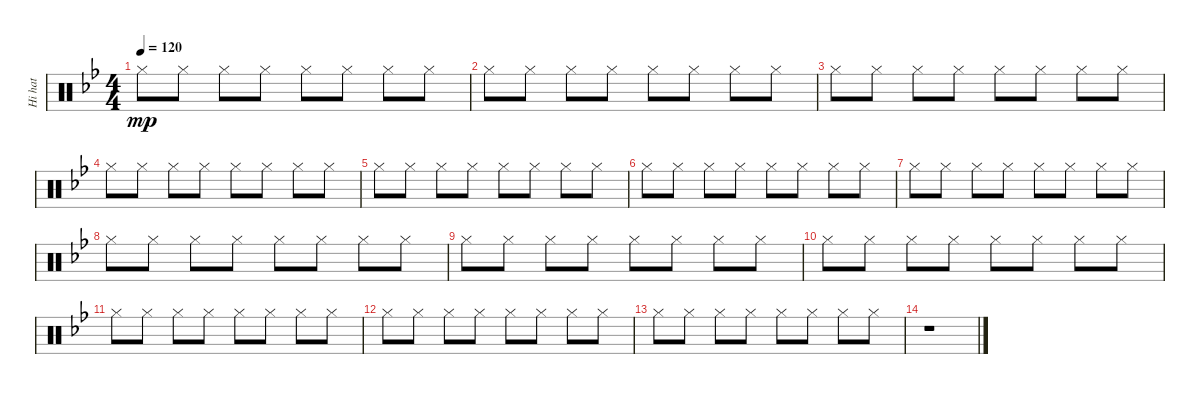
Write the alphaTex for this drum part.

\track ("Hi hat" "Hi hat") {instrument percussion}
\staff {score}
\articulation defaults
\ts (4 4)
\tempo 120
\clef neutral
\ks bb "Hi-Hat (closed)".8{dy mp} "Hi-Hat (closed)".8 "Hi-Hat (closed)".8 "Hi-Hat (closed)".8 "Hi-Hat (closed)".8 "Hi-Hat (closed)".8 "Hi-Hat (closed)".8 "Hi-Hat (closed)".8
|
"Hi-Hat (closed)".8 "Hi-Hat (closed)".8 "Hi-Hat (closed)".8 "Hi-Hat (closed)".8 "Hi-Hat (closed)".8 "Hi-Hat (closed)".8 "Hi-Hat (closed)".8 "Hi-Hat (closed)".8 |
"Hi-Hat (closed)".8 "Hi-Hat (closed)".8 "Hi-Hat (closed)".8 "Hi-Hat (closed)".8 "Hi-Hat (closed)".8 "Hi-Hat (closed)".8 "Hi-Hat (closed)".8 "Hi-Hat (closed)".8 |
"Hi-Hat (closed)".8 "Hi-Hat (closed)".8 "Hi-Hat (closed)".8 "Hi-Hat (closed)".8 "Hi-Hat (closed)".8 "Hi-Hat (closed)".8 "Hi-Hat (closed)".8 "Hi-Hat (closed)".8 |
"Hi-Hat (closed)".8 "Hi-Hat (closed)".8 "Hi-Hat (closed)".8 "Hi-Hat (closed)".8 "Hi-Hat (closed)".8 "Hi-Hat (closed)".8 "Hi-Hat (closed)".8 "Hi-Hat (closed)".8 |
"Hi-Hat (closed)".8 "Hi-Hat (closed)".8 "Hi-Hat (closed)".8 "Hi-Hat (closed)".8 "Hi-Hat (closed)".8 "Hi-Hat (closed)".8 "Hi-Hat (closed)".8 "Hi-Hat (closed)".8 |
"Hi-Hat (closed)".8 "Hi-Hat (closed)".8 "Hi-Hat (closed)".8 "Hi-Hat (closed)".8 "Hi-Hat (closed)".8 "Hi-Hat (closed)".8 "Hi-Hat (closed)".8 "Hi-Hat (closed)".8 |
"Hi-Hat (closed)".8 "Hi-Hat (closed)".8 "Hi-Hat (closed)".8 "Hi-Hat (closed)".8 "Hi-Hat (closed)".8 "Hi-Hat (closed)".8 "Hi-Hat (closed)".8 "Hi-Hat (closed)".8 |
"Hi-Hat (closed)".8 "Hi-Hat (closed)".8 "Hi-Hat (closed)".8 "Hi-Hat (closed)".8 "Hi-Hat (closed)".8 "Hi-Hat (closed)".8 "Hi-Hat (closed)".8 "Hi-Hat (closed)".8 |
"Hi-Hat (closed)".8 "Hi-Hat (closed)".8 "Hi-Hat (closed)".8 "Hi-Hat (closed)".8 "Hi-Hat (closed)".8 "Hi-Hat (closed)".8 "Hi-Hat (closed)".8 "Hi-Hat (closed)".8 |
"Hi-Hat (closed)".8 "Hi-Hat (closed)".8 "Hi-Hat (closed)".8 "Hi-Hat (closed)".8 "Hi-Hat (closed)".8 "Hi-Hat (closed)".8 "Hi-Hat (closed)".8 "Hi-Hat (closed)".8 |
"Hi-Hat (closed)".8 "Hi-Hat (closed)".8 "Hi-Hat (closed)".8 "Hi-Hat (closed)".8 "Hi-Hat (closed)".8 "Hi-Hat (closed)".8 "Hi-Hat (closed)".8 "Hi-Hat (closed)".8 |
"Hi-Hat (closed)".8 "Hi-Hat (closed)".8 "Hi-Hat (closed)".8 "Hi-Hat (closed)".8 "Hi-Hat (closed)".8 "Hi-Hat (closed)".8 "Hi-Hat (closed)".8 "Hi-Hat (closed)".8 |
r.1
